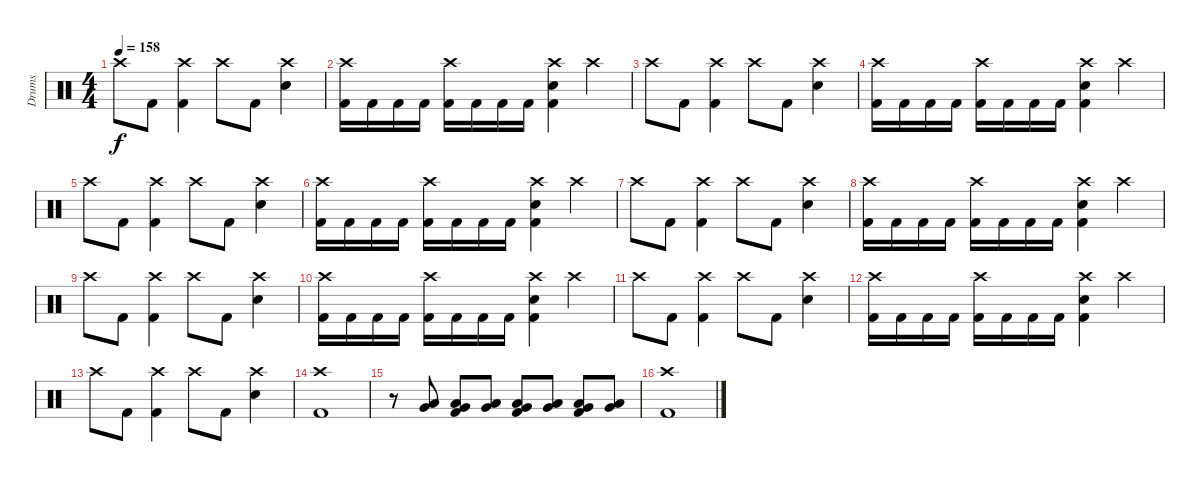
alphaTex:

\track ("Drums" "Drums") {instrument percussion}
\staff {score}
\articulation defaults
\ts (4 4)
\tempo 158
\clef neutral
\ks c "Crash high (hit)".8{dy f} "Kick (hit) 2".8
("Crash high (hit)" "Kick (hit) 2").4 "Crash high (hit)".8 "Kick (hit) 2".8 ("Crash high (hit)" "Electric Snare (hit)").4 |
("Crash high (hit)" "Kick (hit) 2").16 "Kick (hit) 2".16 "Kick (hit) 2".16 "Kick (hit) 2".16 ("Crash high (hit)" "Kick (hit) 2").16 "Kick (hit) 2".16 "Kick (hit) 2".16 "Kick (hit) 2".16 ("Crash high (hit)" "Electric Snare (hit)" "Kick (hit) 2").4 "Crash high (hit)".4 |
"Crash high (hit)".8 "Kick (hit) 2".8 ("Crash high (hit)" "Kick (hit) 2").4 "Crash high (hit)".8 "Kick (hit) 2".8 ("Crash high (hit)" "Electric Snare (hit)").4 |
("Crash high (hit)" "Kick (hit) 2").16 "Kick (hit) 2".16 "Kick (hit) 2".16 "Kick (hit) 2".16 ("Crash high (hit)" "Kick (hit) 2").16 "Kick (hit) 2".16 "Kick (hit) 2".16 "Kick (hit) 2".16 ("Crash high (hit)" "Electric Snare (hit)" "Kick (hit) 2").4 "Crash high (hit)".4 |
"Crash high (hit)".8 "Kick (hit) 2".8 ("Crash high (hit)" "Kick (hit) 2").4 "Crash high (hit)".8 "Kick (hit) 2".8 ("Crash high (hit)" "Electric Snare (hit)").4 |
("Crash high (hit)" "Kick (hit) 2").16 "Kick (hit) 2".16 "Kick (hit) 2".16 "Kick (hit) 2".16 ("Crash high (hit)" "Kick (hit) 2").16 "Kick (hit) 2".16 "Kick (hit) 2".16 "Kick (hit) 2".16 ("Crash high (hit)" "Electric Snare (hit)" "Kick (hit) 2").4 "Crash high (hit)".4 |
"Crash high (hit)".8 "Kick (hit) 2".8 ("Crash high (hit)" "Kick (hit) 2").4 "Crash high (hit)".8 "Kick (hit) 2".8 ("Crash high (hit)" "Electric Snare (hit)").4 |
("Crash high (hit)" "Kick (hit) 2").16 "Kick (hit) 2".16 "Kick (hit) 2".16 "Kick (hit) 2".16 ("Crash high (hit)" "Kick (hit) 2").16 "Kick (hit) 2".16 "Kick (hit) 2".16 "Kick (hit) 2".16 ("Crash high (hit)" "Electric Snare (hit)" "Kick (hit) 2").4 "Crash high (hit)".4 |
"Crash high (hit)".8 "Kick (hit) 2".8 ("Crash high (hit)" "Kick (hit) 2").4 "Crash high (hit)".8 "Kick (hit) 2".8 ("Crash high (hit)" "Electric Snare (hit)").4 |
("Crash high (hit)" "Kick (hit) 2").16 "Kick (hit) 2".16 "Kick (hit) 2".16 "Kick (hit) 2".16 ("Crash high (hit)" "Kick (hit) 2").16 "Kick (hit) 2".16 "Kick (hit) 2".16 "Kick (hit) 2".16 ("Crash high (hit)" "Electric Snare (hit)" "Kick (hit) 2").4 "Crash high (hit)".4 |
"Crash high (hit)".8 "Kick (hit) 2".8 ("Crash high (hit)" "Kick (hit) 2").4 "Crash high (hit)".8 "Kick (hit) 2".8 ("Crash high (hit)" "Electric Snare (hit)").4 |
("Crash high (hit)" "Kick (hit) 2").16 "Kick (hit) 2".16 "Kick (hit) 2".16 "Kick (hit) 2".16 ("Crash high (hit)" "Kick (hit) 2").16 "Kick (hit) 2".16 "Kick (hit) 2".16 "Kick (hit) 2".16 ("Crash high (hit)" "Electric Snare (hit)" "Kick (hit) 2").4 "Crash high (hit)".4 |
"Crash high (hit)".8 "Kick (hit) 2".8 ("Crash high (hit)" "Kick (hit) 2").4 "Crash high (hit)".8 "Kick (hit) 2".8 ("Crash high (hit)" "Electric Snare (hit)").4 |
("Crash high (hit)" "Kick (hit) 2").1 |
r.8 ("Very Low Tom (hit)" "Low Floor Tom (hit)").8 ("Very Low Tom (hit)" "Low Floor Tom (hit)" "Kick (hit) 2").8 ("Very Low Tom (hit)" "Low Floor Tom (hit)").8 ("Very Low Tom (hit)" "Low Floor Tom (hit)" "Kick (hit) 2").8 ("Very Low Tom (hit)" "Low Floor Tom (hit)").8 ("Very Low Tom (hit)" "Low Floor Tom (hit)" "Kick (hit) 2").8 ("Very Low Tom (hit)" "Low Floor Tom (hit)").8 |
("Crash high (hit)" "Kick (hit) 2").1
